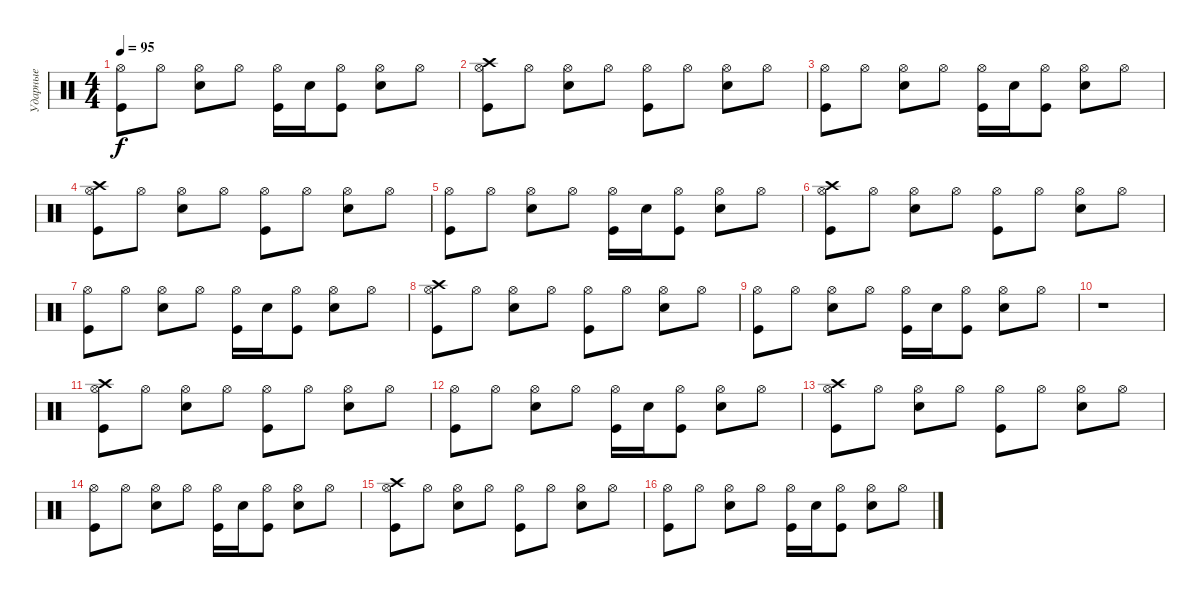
\track ("Ударные" "Ударные") {instrument percussion}
\staff {score}
\articulation defaults
\ts (4 4)
\tempo 95
\clef neutral
\ks c
("Kick (hit)" "Hi-Hat (open)").8{dy f} "Hi-Hat (open)".8 ("Snare (hit) 2" "Hi-Hat (open)").8 "Hi-Hat (open)".8 ("Kick (hit)" "Hi-Hat (open)").16 "Snare (hit) 2".16 ("Kick (hit)" "Hi-Hat (open)").8 ("Snare (hit) 2" "Hi-Hat (open)").8 "Hi-Hat (open)".8 |
("Kick (hit)" "Hi-Hat (open)" "Crash high (hit)").8 "Hi-Hat (open)".8 ("Snare (hit) 2" "Hi-Hat (open)").8 "Hi-Hat (open)".8 ("Kick (hit)" "Hi-Hat (open)").8 "Hi-Hat (open)".8 ("Snare (hit) 2" "Hi-Hat (open)").8 "Hi-Hat (open)".8 |
("Kick (hit)" "Hi-Hat (open)").8 "Hi-Hat (open)".8 ("Snare (hit) 2" "Hi-Hat (open)").8 "Hi-Hat (open)".8 ("Kick (hit)" "Hi-Hat (open)").16 "Snare (hit) 2".16 ("Kick (hit)" "Hi-Hat (open)").8 ("Snare (hit) 2" "Hi-Hat (open)").8 "Hi-Hat (open)".8 |
("Kick (hit)" "Hi-Hat (open)" "Crash high (hit)").8 "Hi-Hat (open)".8 ("Snare (hit) 2" "Hi-Hat (open)").8 "Hi-Hat (open)".8 ("Kick (hit)" "Hi-Hat (open)").8 "Hi-Hat (open)".8 ("Snare (hit) 2" "Hi-Hat (open)").8 "Hi-Hat (open)".8 |
("Kick (hit)" "Hi-Hat (open)").8 "Hi-Hat (open)".8 ("Snare (hit) 2" "Hi-Hat (open)").8 "Hi-Hat (open)".8 ("Kick (hit)" "Hi-Hat (open)").16 "Snare (hit) 2".16 ("Kick (hit)" "Hi-Hat (open)").8 ("Snare (hit) 2" "Hi-Hat (open)").8 "Hi-Hat (open)".8 |
("Kick (hit)" "Hi-Hat (open)" "Crash high (hit)").8 "Hi-Hat (open)".8 ("Snare (hit) 2" "Hi-Hat (open)").8 "Hi-Hat (open)".8 ("Kick (hit)" "Hi-Hat (open)").8 "Hi-Hat (open)".8 ("Snare (hit) 2" "Hi-Hat (open)").8 "Hi-Hat (open)".8 |
("Kick (hit)" "Hi-Hat (open)").8 "Hi-Hat (open)".8 ("Snare (hit) 2" "Hi-Hat (open)").8 "Hi-Hat (open)".8 ("Kick (hit)" "Hi-Hat (open)").16 "Snare (hit) 2".16 ("Kick (hit)" "Hi-Hat (open)").8 ("Snare (hit) 2" "Hi-Hat (open)").8 "Hi-Hat (open)".8 |
("Kick (hit)" "Hi-Hat (open)" "Crash high (hit)").8 "Hi-Hat (open)".8 ("Snare (hit) 2" "Hi-Hat (open)").8 "Hi-Hat (open)".8 ("Kick (hit)" "Hi-Hat (open)").8 "Hi-Hat (open)".8 ("Snare (hit) 2" "Hi-Hat (open)").8 "Hi-Hat (open)".8 |
("Kick (hit)" "Hi-Hat (open)").8 "Hi-Hat (open)".8 ("Snare (hit) 2" "Hi-Hat (open)").8 "Hi-Hat (open)".8 ("Kick (hit)" "Hi-Hat (open)").16 "Snare (hit) 2".16 ("Kick (hit)" "Hi-Hat (open)").8 ("Snare (hit) 2" "Hi-Hat (open)").8 "Hi-Hat (open)".8 |
r.1 |
("Kick (hit)" "Hi-Hat (open)" "Crash high (hit)").8 "Hi-Hat (open)".8 ("Snare (hit) 2" "Hi-Hat (open)").8 "Hi-Hat (open)".8 ("Kick (hit)" "Hi-Hat (open)").8 "Hi-Hat (open)".8 ("Snare (hit) 2" "Hi-Hat (open)").8 "Hi-Hat (open)".8 |
("Kick (hit)" "Hi-Hat (open)").8 "Hi-Hat (open)".8 ("Snare (hit) 2" "Hi-Hat (open)").8 "Hi-Hat (open)".8 ("Kick (hit)" "Hi-Hat (open)").16 "Snare (hit) 2".16 ("Kick (hit)" "Hi-Hat (open)").8 ("Snare (hit) 2" "Hi-Hat (open)").8 "Hi-Hat (open)".8 |
("Kick (hit)" "Hi-Hat (open)" "Crash high (hit)").8 "Hi-Hat (open)".8 ("Snare (hit) 2" "Hi-Hat (open)").8 "Hi-Hat (open)".8 ("Kick (hit)" "Hi-Hat (open)").8 "Hi-Hat (open)".8 ("Snare (hit) 2" "Hi-Hat (open)").8 "Hi-Hat (open)".8 |
("Kick (hit)" "Hi-Hat (open)").8 "Hi-Hat (open)".8 ("Snare (hit) 2" "Hi-Hat (open)").8 "Hi-Hat (open)".8 ("Kick (hit)" "Hi-Hat (open)").16 "Snare (hit) 2".16 ("Kick (hit)" "Hi-Hat (open)").8 ("Snare (hit) 2" "Hi-Hat (open)").8 "Hi-Hat (open)".8 |
("Kick (hit)" "Hi-Hat (open)" "Crash high (hit)").8 "Hi-Hat (open)".8 ("Snare (hit) 2" "Hi-Hat (open)").8 "Hi-Hat (open)".8 ("Kick (hit)" "Hi-Hat (open)").8 "Hi-Hat (open)".8 ("Snare (hit) 2" "Hi-Hat (open)").8 "Hi-Hat (open)".8 |
("Kick (hit)" "Hi-Hat (open)").8 "Hi-Hat (open)".8 ("Snare (hit) 2" "Hi-Hat (open)").8 "Hi-Hat (open)".8 ("Kick (hit)" "Hi-Hat (open)").16 "Snare (hit) 2".16 ("Kick (hit)" "Hi-Hat (open)").8 ("Snare (hit) 2" "Hi-Hat (open)").8 "Hi-Hat (open)".8
